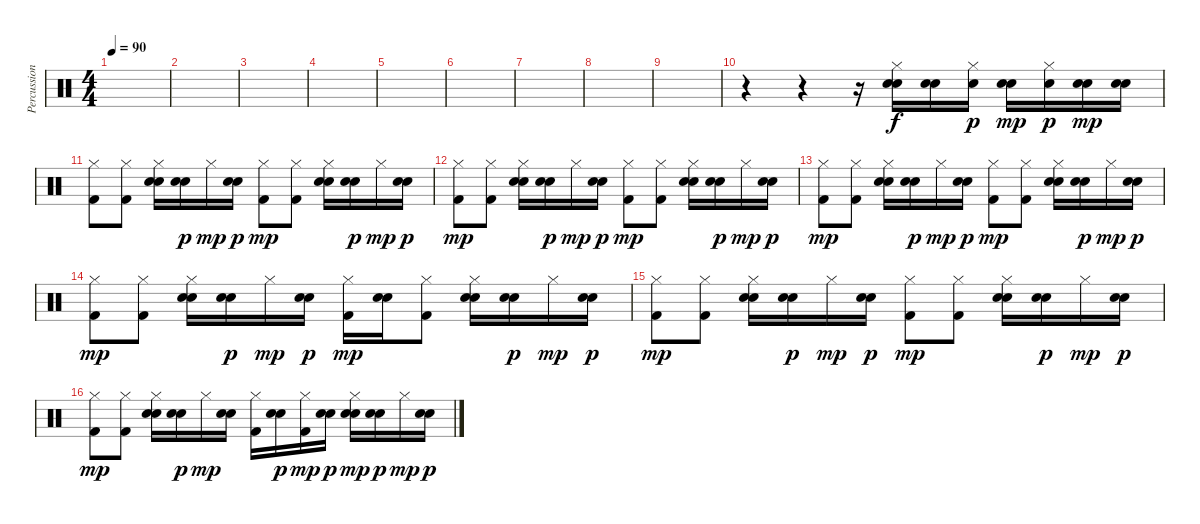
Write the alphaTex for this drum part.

\track ("Percussion" "Percussion") {instrument percussion}
\staff {score}
\articulation defaults
\ts (4 4)
\tempo 90
\clef neutral
\ks c
|
|
|
|
|
|
|
|
|
r.4 r.4 r.16 ("Hi-Hat (closed)" "Electric Snare (hit)" "Snare (hit) 2").16 ("Electric Snare (hit)" "Snare (hit) 2").16 ("Hi-Hat (closed)" "Snare (hit) 2").16{dy p} ("Electric Snare (hit)" "Snare (hit) 2").16{dy mp} ("Hi-Hat (closed)" "Snare (hit) 2").16{dy p} ("Electric Snare (hit)" "Snare (hit) 2").16{dy mp} ("Electric Snare (hit)" "Snare (hit) 2").16 |
("Hi-Hat (closed)" "Kick (hit) 2").8 ("Hi-Hat (closed)" "Kick (hit) 2").8 ("Hi-Hat (closed)" "Electric Snare (hit)" "Snare (hit) 2").16 ("Electric Snare (hit)" "Snare (hit) 2").16{dy p} "Hi-Hat (closed)".16{dy mp} ("Electric Snare (hit)" "Snare (hit) 2").16{dy p} ("Hi-Hat (closed)" "Kick (hit) 2").8{dy mp} ("Hi-Hat (closed)" "Kick (hit) 2").8 ("Hi-Hat (closed)" "Electric Snare (hit)" "Snare (hit) 2").16 ("Electric Snare (hit)" "Snare (hit) 2").16{dy p} "Hi-Hat (closed)".16{dy mp} ("Electric Snare (hit)" "Snare (hit) 2").16{dy p} |
("Hi-Hat (closed)" "Kick (hit) 2").8{dy mp} ("Hi-Hat (closed)" "Kick (hit) 2").8 ("Hi-Hat (closed)" "Electric Snare (hit)" "Snare (hit) 2").16 ("Electric Snare (hit)" "Snare (hit) 2").16{dy p} "Hi-Hat (closed)".16{dy mp} ("Electric Snare (hit)" "Snare (hit) 2").16{dy p} ("Hi-Hat (closed)" "Kick (hit) 2").8{dy mp} ("Hi-Hat (closed)" "Kick (hit) 2").8 ("Hi-Hat (closed)" "Electric Snare (hit)" "Snare (hit) 2").16 ("Electric Snare (hit)" "Snare (hit) 2").16{dy p} "Hi-Hat (closed)".16{dy mp} ("Electric Snare (hit)" "Snare (hit) 2").16{dy p} |
("Hi-Hat (closed)" "Kick (hit) 2").8{dy mp} ("Hi-Hat (closed)" "Kick (hit) 2").8 ("Hi-Hat (closed)" "Electric Snare (hit)" "Snare (hit) 2").16 ("Electric Snare (hit)" "Snare (hit) 2").16{dy p} "Hi-Hat (closed)".16{dy mp} ("Electric Snare (hit)" "Snare (hit) 2").16{dy p} ("Hi-Hat (closed)" "Kick (hit) 2").8{dy mp} ("Hi-Hat (closed)" "Kick (hit) 2").8 ("Hi-Hat (closed)" "Electric Snare (hit)" "Snare (hit) 2").16 ("Electric Snare (hit)" "Snare (hit) 2").16{dy p} "Hi-Hat (closed)".16{dy mp} ("Electric Snare (hit)" "Snare (hit) 2").16{dy p} |
("Hi-Hat (closed)" "Kick (hit) 2").8{dy mp} ("Hi-Hat (closed)" "Kick (hit) 2").8 ("Hi-Hat (closed)" "Electric Snare (hit)" "Snare (hit) 2").16 ("Electric Snare (hit)" "Snare (hit) 2").16{dy p} "Hi-Hat (closed)".16{dy mp} ("Electric Snare (hit)" "Snare (hit) 2").16{dy p} ("Hi-Hat (closed)" "Kick (hit) 2").16{dy mp} ("Electric Snare (hit)" "Snare (hit) 2").16 ("Hi-Hat (closed)" "Kick (hit) 2").8 ("Hi-Hat (closed)" "Electric Snare (hit)" "Snare (hit) 2").16 ("Electric Snare (hit)" "Snare (hit) 2").16{dy p} "Hi-Hat (closed)".16{dy mp} ("Electric Snare (hit)" "Snare (hit) 2").16{dy p} |
("Hi-Hat (closed)" "Kick (hit) 2").8{dy mp} ("Hi-Hat (closed)" "Kick (hit) 2").8 ("Hi-Hat (closed)" "Electric Snare (hit)" "Snare (hit) 2").16 ("Electric Snare (hit)" "Snare (hit) 2").16{dy p} "Hi-Hat (closed)".16{dy mp} ("Electric Snare (hit)" "Snare (hit) 2").16{dy p} ("Hi-Hat (closed)" "Kick (hit) 2").8{dy mp} ("Hi-Hat (closed)" "Kick (hit) 2").8 ("Hi-Hat (closed)" "Electric Snare (hit)" "Snare (hit) 2").16 ("Electric Snare (hit)" "Snare (hit) 2").16{dy p} "Hi-Hat (closed)".16{dy mp} ("Electric Snare (hit)" "Snare (hit) 2").16{dy p} |
("Hi-Hat (closed)" "Kick (hit) 2").8{dy mp} ("Hi-Hat (closed)" "Kick (hit) 2").8 ("Hi-Hat (closed)" "Electric Snare (hit)" "Snare (hit) 2").16 ("Electric Snare (hit)" "Snare (hit) 2").16{dy p} "Hi-Hat (closed)".16{dy mp} ("Electric Snare (hit)" "Snare (hit) 2").16 ("Hi-Hat (closed)" "Kick (hit) 2").16 ("Electric Snare (hit)" "Snare (hit) 2").16{dy p} ("Hi-Hat (closed)" "Kick (hit) 2").16{dy mp} ("Electric Snare (hit)" "Snare (hit) 2").16{dy p} ("Hi-Hat (closed)" "Electric Snare (hit)" "Snare (hit) 2").16{dy mp} ("Electric Snare (hit)" "Snare (hit) 2").16{dy p} "Hi-Hat (closed)".16{dy mp} ("Electric Snare (hit)" "Snare (hit) 2").16{dy p}
